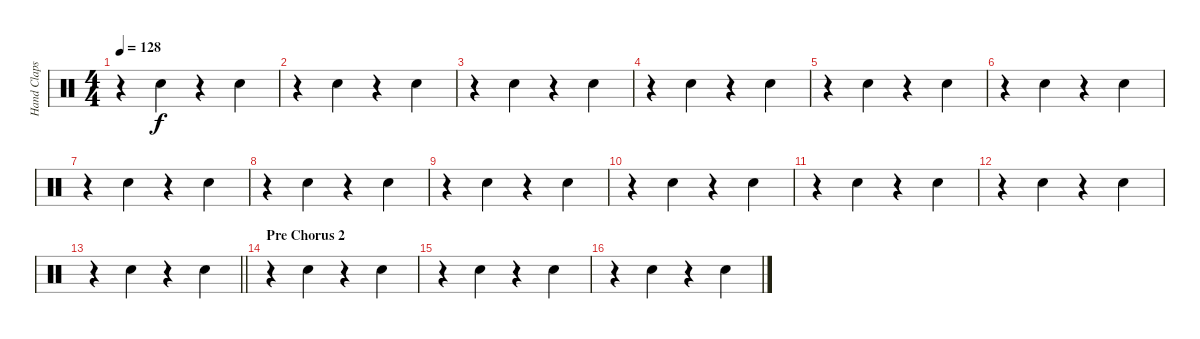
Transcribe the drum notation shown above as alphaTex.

\track ("Hand Claps" "Hand Claps") {instrument percussion}
\staff {score}
\articulation defaults
\ts (4 4)
\tempo 128
\clef neutral
\ks c
r.4{dy f} "Hand Clap (hit)".4 r.4 "Hand Clap (hit)".4 |
r.4 "Hand Clap (hit)".4 r.4 "Hand Clap (hit)".4 |
r.4 "Hand Clap (hit)".4 r.4 "Hand Clap (hit)".4 |
r.4 "Hand Clap (hit)".4 r.4 "Hand Clap (hit)".4 |
r.4 "Hand Clap (hit)".4 r.4 "Hand Clap (hit)".4 |
r.4 "Hand Clap (hit)".4 r.4 "Hand Clap (hit)".4 |
r.4 "Hand Clap (hit)".4 r.4 "Hand Clap (hit)".4 |
r.4 "Hand Clap (hit)".4 r.4 "Hand Clap (hit)".4 |
r.4 "Hand Clap (hit)".4 r.4 "Hand Clap (hit)".4 |
r.4 "Hand Clap (hit)".4 r.4 "Hand Clap (hit)".4 |
r.4 "Hand Clap (hit)".4 r.4 "Hand Clap (hit)".4 |
r.4 "Hand Clap (hit)".4 r.4 "Hand Clap (hit)".4 |
\barLineRight lightlight
r.4 "Hand Clap (hit)".4 r.4 "Hand Clap (hit)".4 |
\section ("" "Pre Chorus 2")
r.4 "Hand Clap (hit)".4 r.4 "Hand Clap (hit)".4 |
r.4 "Hand Clap (hit)".4 r.4 "Hand Clap (hit)".4 |
r.4 "Hand Clap (hit)".4 r.4 "Hand Clap (hit)".4
